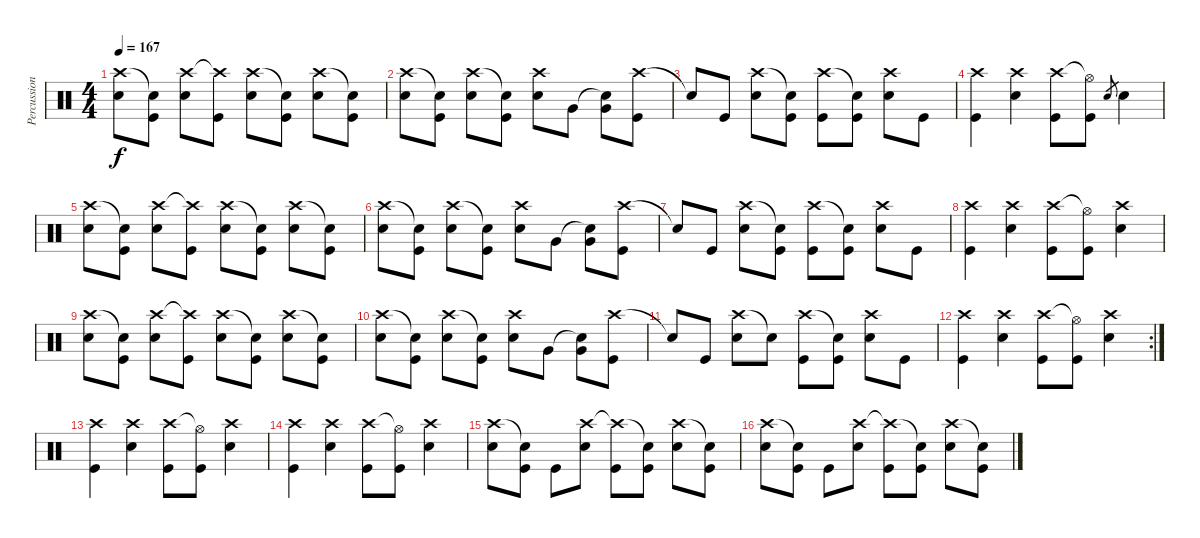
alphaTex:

\track ("Percussion" "Percussion") {instrument percussion}
\staff {score}
\articulation defaults
\ts (4 4)
\tempo 167
\clef neutral
\ks c
("Crash high (hit)" "Electric Snare (hit)").8{dy f} ("Snare (hit)"{t} "Kick (hit)").8 ("Crash high (hit)" "Electric Snare (hit)").8 ("Crash high (hit)"{t} "Kick (hit)").8 ("Crash high (hit)" "Electric Snare (hit)").8 ("Snare (hit)"{t} "Kick (hit)").8 ("Crash high (hit)" "Electric Snare (hit)").8 ("Snare (hit)"{t} "Kick (hit)").8 |
("Crash high (hit)" "Electric Snare (hit)").8 ("Snare (hit)"{t} "Kick (hit)").8 ("Crash high (hit)" "Electric Snare (hit)").8 ("Snare (hit)"{t} "Kick (hit)").8 ("Crash high (hit)" "Electric Snare (hit)").8 "Very Low Tom (hit)".8 ("Snare (hit)"{t} "Very Low Tom (hit)").8 ("Crash high (hit)" "Kick (hit)").8 |
"Snare (hit)"{t}.8 "Kick (hit)".8 ("Crash high (hit)" "Electric Snare (hit)").8 ("Snare (hit)"{t} "Kick (hit)").8 ("Crash high (hit)" "Kick (hit)").8 ("Snare (hit)"{t} "Kick (hit)").8 ("Crash high (hit)" "Electric Snare (hit)").8 "Kick (hit)".8 |
("Crash high (hit)" "Kick (hit)").4 ("Crash high (hit)" "Electric Snare (hit)").4 ("Crash high (hit)" "Kick (hit)").8 ("Hi-Hat (open)"{t} "Kick (hit)").8 "Electric Snare (hit)".8{gr} "Electric Snare (hit)".4 |
("Crash high (hit)" "Electric Snare (hit)").8 ("Snare (hit)"{t} "Kick (hit)").8 ("Crash high (hit)" "Electric Snare (hit)").8 ("Crash high (hit)"{t} "Kick (hit)").8 ("Crash high (hit)" "Electric Snare (hit)").8 ("Snare (hit)"{t} "Kick (hit)").8 ("Crash high (hit)" "Electric Snare (hit)").8 ("Snare (hit)"{t} "Kick (hit)").8 |
("Crash high (hit)" "Electric Snare (hit)").8 ("Snare (hit)"{t} "Kick (hit)").8 ("Crash high (hit)" "Electric Snare (hit)").8 ("Snare (hit)"{t} "Kick (hit)").8 ("Crash high (hit)" "Electric Snare (hit)").8 "Very Low Tom (hit)".8 ("Snare (hit)"{t} "Very Low Tom (hit)").8 ("Crash high (hit)" "Kick (hit)").8 |
"Snare (hit)"{t}.8 "Kick (hit)".8 ("Crash high (hit)" "Electric Snare (hit)").8 ("Snare (hit)"{t} "Kick (hit)").8 ("Crash high (hit)" "Kick (hit)").8 ("Snare (hit)"{t} "Kick (hit)").8 ("Crash high (hit)" "Electric Snare (hit)").8 "Kick (hit)".8 |
("Crash high (hit)" "Kick (hit)").4 ("Crash high (hit)" "Electric Snare (hit)").4 ("Crash high (hit)" "Kick (hit)").8 ("Hi-Hat (open)"{t} "Kick (hit)").8 ("Crash high (hit)" "Electric Snare (hit)").4 |
("Crash high (hit)" "Electric Snare (hit)").8 ("Snare (hit)"{t} "Kick (hit)").8 ("Crash high (hit)" "Electric Snare (hit)").8 ("Crash high (hit)"{t} "Kick (hit)").8 ("Crash high (hit)" "Electric Snare (hit)").8 ("Snare (hit)"{t} "Kick (hit)").8 ("Crash high (hit)" "Electric Snare (hit)").8 ("Snare (hit)"{t} "Kick (hit)").8 |
("Crash high (hit)" "Electric Snare (hit)").8 ("Snare (hit)"{t} "Kick (hit)").8 ("Crash high (hit)" "Electric Snare (hit)").8 ("Snare (hit)"{t} "Kick (hit)").8 ("Crash high (hit)" "Electric Snare (hit)").8 "Very Low Tom (hit)".8 ("Snare (hit)"{t} "Very Low Tom (hit)").8 ("Crash high (hit)" "Kick (hit)").8 |
"Snare (hit)"{t}.8 "Kick (hit)".8 ("Crash high (hit)" "Electric Snare (hit)").8 "Snare (hit)"{t}.8 ("Crash high (hit)" "Kick (hit)").8 ("Snare (hit)"{t} "Kick (hit)").8 ("Crash high (hit)" "Electric Snare (hit)").8 "Kick (hit)".8 |
\rc 2
("Crash high (hit)" "Kick (hit)").4 ("Crash high (hit)" "Electric Snare (hit)").4 ("Crash high (hit)" "Kick (hit)").8 ("Hi-Hat (open)"{t} "Kick (hit)").8 ("Crash high (hit)" "Electric Snare (hit)").4 |
("Crash high (hit)" "Kick (hit)").4 ("Crash high (hit)" "Electric Snare (hit)").4 ("Crash high (hit)" "Kick (hit)").8 ("Hi-Hat (open)"{t} "Kick (hit)").8 ("Crash high (hit)" "Electric Snare (hit)").4 |
("Crash high (hit)" "Kick (hit)").4 ("Crash high (hit)" "Electric Snare (hit)").4 ("Crash high (hit)" "Kick (hit)").8 ("Hi-Hat (open)"{t} "Kick (hit)").8 ("Crash high (hit)" "Electric Snare (hit)").4 |
("Crash high (hit)" "Electric Snare (hit)").8 ("Snare (hit)"{t} "Kick (hit)").8 "Kick (hit)".8 ("Crash high (hit)" "Electric Snare (hit)").8 ("Crash high (hit)"{t} "Kick (hit)").8 ("Snare (hit)"{t} "Kick (hit)").8 ("Crash high (hit)" "Electric Snare (hit)").8 ("Snare (hit)"{t} "Kick (hit)").8 |
("Crash high (hit)" "Electric Snare (hit)").8 ("Snare (hit)"{t} "Kick (hit)").8 "Kick (hit)".8 ("Crash high (hit)" "Electric Snare (hit)").8 ("Crash high (hit)"{t} "Kick (hit)").8 ("Snare (hit)"{t} "Kick (hit)").8 ("Crash high (hit)" "Electric Snare (hit)").8 ("Snare (hit)"{t} "Kick (hit)").8
